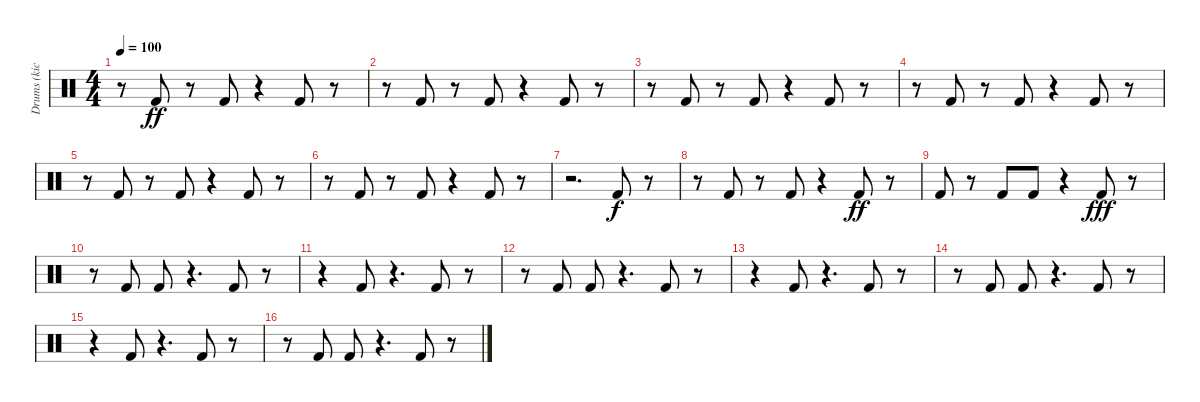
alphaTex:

\track ("Drums (kick)" "Drums (kic") {instrument percussion}
\staff {score}
\articulation defaults
\ts (4 4)
\tempo 100
\clef neutral
\ks c
r.8{dy ff} "Kick (hit) 2".8 r.8 "Kick (hit) 2".8 r.4 "Kick (hit) 2".8 r.8 |
r.8 "Kick (hit) 2".8 r.8 "Kick (hit) 2".8 r.4 "Kick (hit) 2".8 r.8 |
r.8 "Kick (hit) 2".8 r.8 "Kick (hit) 2".8 r.4 "Kick (hit) 2".8 r.8 |
r.8 "Kick (hit) 2".8 r.8 "Kick (hit) 2".8 r.4 "Kick (hit) 2".8 r.8 |
r.8 "Kick (hit) 2".8 r.8 "Kick (hit) 2".8 r.4 "Kick (hit) 2".8 r.8 |
r.8 "Kick (hit) 2".8 r.8 "Kick (hit) 2".8 r.4 "Kick (hit) 2".8 r.8 |
r.2{d} "Kick (hit) 2".8{dy f} r.8 |
r.8 "Kick (hit) 2".8 r.8 "Kick (hit) 2".8 r.4 "Kick (hit) 2".8{dy ff} r.8 |
"Kick (hit) 2".8 r.8 "Kick (hit) 2".8 "Kick (hit) 2".8 r.4 "Kick (hit) 2".8{dy fff} r.8 |
r.8 "Kick (hit) 2".8 "Kick (hit) 2".8 r.4{d} "Kick (hit) 2".8 r.8 |
r.4 "Kick (hit) 2".8 r.4{d} "Kick (hit) 2".8 r.8 |
r.8 "Kick (hit) 2".8 "Kick (hit) 2".8 r.4{d} "Kick (hit) 2".8 r.8 |
r.4 "Kick (hit) 2".8 r.4{d} "Kick (hit) 2".8 r.8 |
r.8 "Kick (hit) 2".8 "Kick (hit) 2".8 r.4{d} "Kick (hit) 2".8 r.8 |
r.4 "Kick (hit) 2".8 r.4{d} "Kick (hit) 2".8 r.8 |
r.8 "Kick (hit) 2".8 "Kick (hit) 2".8 r.4{d} "Kick (hit) 2".8 r.8
